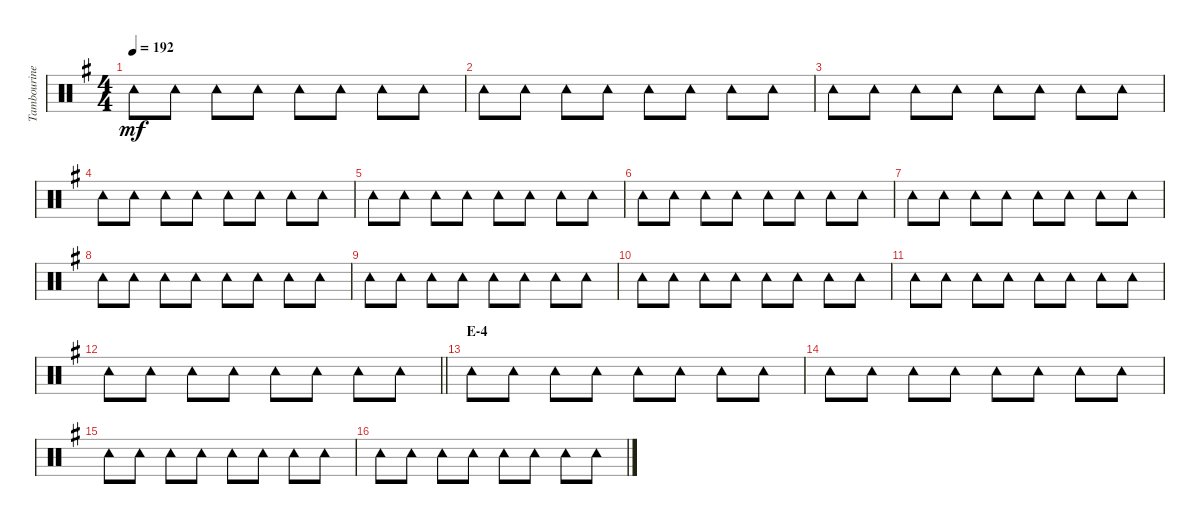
\track ("Tambourine" "Tambourine") {instrument percussion}
\staff {score}
\articulation defaults
\ts (4 4)
\tempo 192
\clef neutral
\ks g "Tambourine (hit)".8{dy mf} "Tambourine (hit)".8 "Tambourine (hit)".8 "Tambourine (hit)".8 "Tambourine (hit)".8 "Tambourine (hit)".8 "Tambourine (hit)".8 "Tambourine (hit)".8
|
"Tambourine (hit)".8 "Tambourine (hit)".8 "Tambourine (hit)".8 "Tambourine (hit)".8 "Tambourine (hit)".8 "Tambourine (hit)".8 "Tambourine (hit)".8 "Tambourine (hit)".8 |
"Tambourine (hit)".8 "Tambourine (hit)".8 "Tambourine (hit)".8 "Tambourine (hit)".8 "Tambourine (hit)".8 "Tambourine (hit)".8 "Tambourine (hit)".8 "Tambourine (hit)".8 |
"Tambourine (hit)".8 "Tambourine (hit)".8 "Tambourine (hit)".8 "Tambourine (hit)".8 "Tambourine (hit)".8 "Tambourine (hit)".8 "Tambourine (hit)".8 "Tambourine (hit)".8 |
"Tambourine (hit)".8 "Tambourine (hit)".8 "Tambourine (hit)".8 "Tambourine (hit)".8 "Tambourine (hit)".8 "Tambourine (hit)".8 "Tambourine (hit)".8 "Tambourine (hit)".8 |
"Tambourine (hit)".8 "Tambourine (hit)".8 "Tambourine (hit)".8 "Tambourine (hit)".8 "Tambourine (hit)".8 "Tambourine (hit)".8 "Tambourine (hit)".8 "Tambourine (hit)".8 |
"Tambourine (hit)".8 "Tambourine (hit)".8 "Tambourine (hit)".8 "Tambourine (hit)".8 "Tambourine (hit)".8 "Tambourine (hit)".8 "Tambourine (hit)".8 "Tambourine (hit)".8 |
"Tambourine (hit)".8 "Tambourine (hit)".8 "Tambourine (hit)".8 "Tambourine (hit)".8 "Tambourine (hit)".8 "Tambourine (hit)".8 "Tambourine (hit)".8 "Tambourine (hit)".8 |
"Tambourine (hit)".8 "Tambourine (hit)".8 "Tambourine (hit)".8 "Tambourine (hit)".8 "Tambourine (hit)".8 "Tambourine (hit)".8 "Tambourine (hit)".8 "Tambourine (hit)".8 |
"Tambourine (hit)".8 "Tambourine (hit)".8 "Tambourine (hit)".8 "Tambourine (hit)".8 "Tambourine (hit)".8 "Tambourine (hit)".8 "Tambourine (hit)".8 "Tambourine (hit)".8 |
"Tambourine (hit)".8 "Tambourine (hit)".8 "Tambourine (hit)".8 "Tambourine (hit)".8 "Tambourine (hit)".8 "Tambourine (hit)".8 "Tambourine (hit)".8 "Tambourine (hit)".8 |
\barLineRight lightlight "Tambourine (hit)".8 "Tambourine (hit)".8 "Tambourine (hit)".8 "Tambourine (hit)".8 "Tambourine (hit)".8 "Tambourine (hit)".8 "Tambourine (hit)".8 "Tambourine (hit)".8
|
\section ("" "E-4")
"Tambourine (hit)".8 "Tambourine (hit)".8 "Tambourine (hit)".8 "Tambourine (hit)".8 "Tambourine (hit)".8 "Tambourine (hit)".8 "Tambourine (hit)".8 "Tambourine (hit)".8 |
"Tambourine (hit)".8 "Tambourine (hit)".8 "Tambourine (hit)".8 "Tambourine (hit)".8 "Tambourine (hit)".8 "Tambourine (hit)".8 "Tambourine (hit)".8 "Tambourine (hit)".8 |
"Tambourine (hit)".8 "Tambourine (hit)".8 "Tambourine (hit)".8 "Tambourine (hit)".8 "Tambourine (hit)".8 "Tambourine (hit)".8 "Tambourine (hit)".8 "Tambourine (hit)".8 |
"Tambourine (hit)".8 "Tambourine (hit)".8 "Tambourine (hit)".8 "Tambourine (hit)".8 "Tambourine (hit)".8 "Tambourine (hit)".8 "Tambourine (hit)".8 "Tambourine (hit)".8
